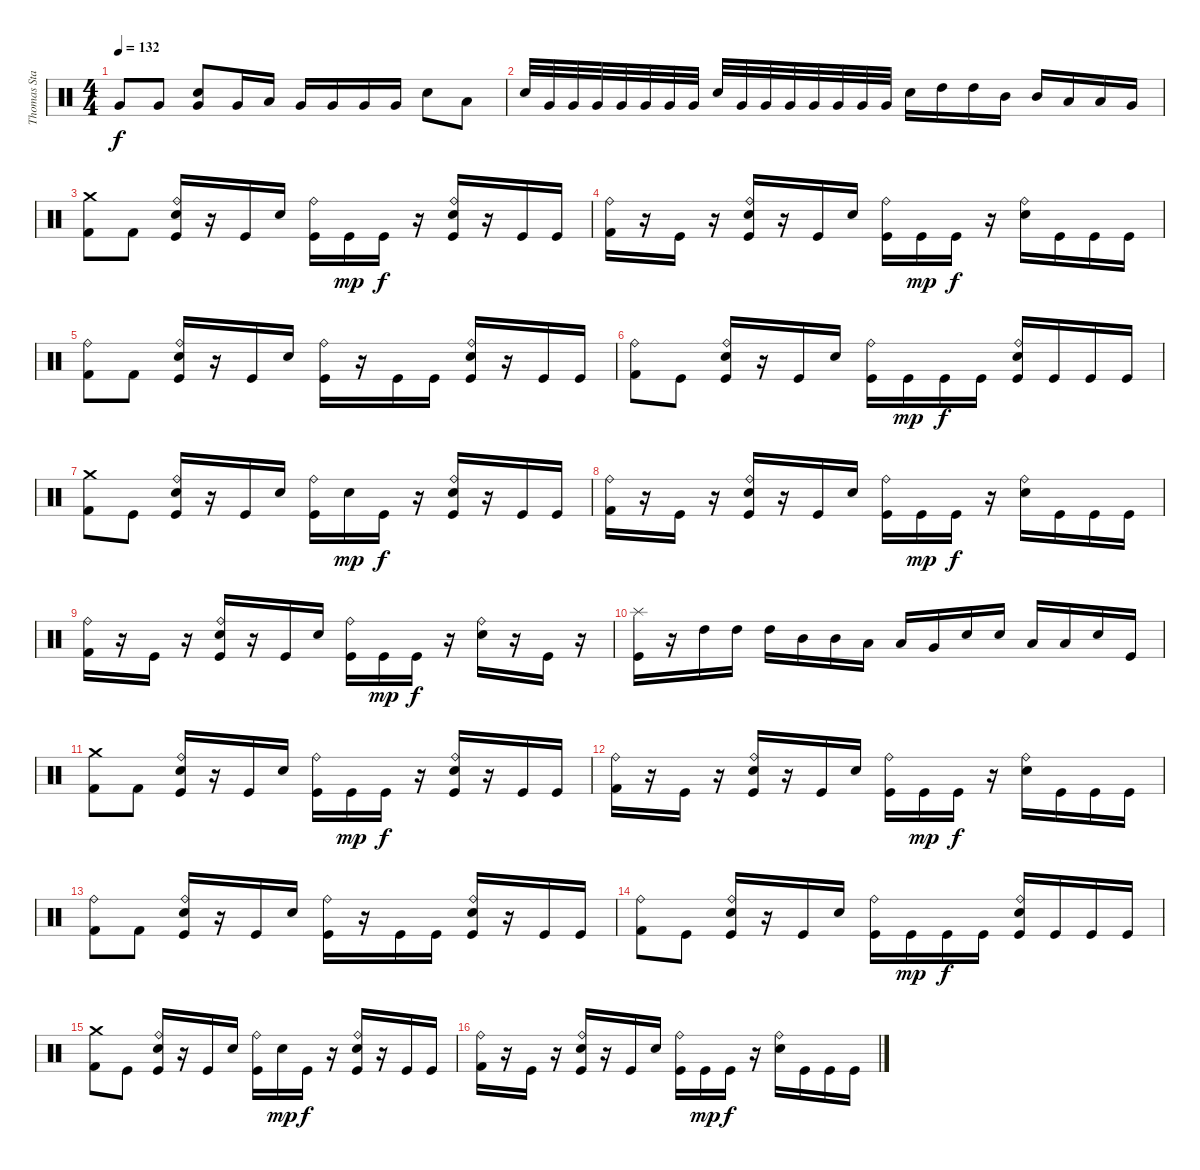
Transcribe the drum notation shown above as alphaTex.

\track ("Thomas Stauch" "Thomas Sta") {instrument percussion}
\staff {score}
\articulation defaults
\ts (4 4)
\tempo 132
\clef neutral
\ks c "Very Low Tom (hit)".8{dy f} "Very Low Tom (hit)".8
("Electric Snare (hit)" "Very Low Tom (hit)").8 "Very Low Tom (hit)".16 "Low Tom (hit)".16 "Very Low Tom (hit)".16 "Very Low Tom (hit)".16 "Very Low Tom (hit)".16 "Very Low Tom (hit)".16 "Electric Snare (hit)".8 "Low Floor Tom (hit)".8 |
"Electric Snare (hit)".32 "Very Low Tom (hit)".32 "Very Low Tom (hit)".32 "Very Low Tom (hit)".32 "Very Low Tom (hit)".32 "Very Low Tom (hit)".32 "Very Low Tom (hit)".32 "Very Low Tom (hit)".32 "Electric Snare (hit)".32 "Very Low Tom (hit)".32 "Very Low Tom (hit)".32 "Very Low Tom (hit)".32 "Very Low Tom (hit)".32 "Very Low Tom (hit)".32 "Very Low Tom (hit)".32 "Very Low Tom (hit)".32 "Electric Snare (hit)".16 "High Tom (hit)".16 "High Tom (hit)".16 "Mid Tom (hit)".16 "Mid Tom (hit)".16 "Low Tom (hit)".16 "Low Tom (hit)".16 "Very Low Tom (hit)".16 |
("Crash medium (hit)" "Kick (hit) 2").8 "Kick (hit) 2".8 ("Ride (bell)" "Electric Snare (hit)" "Kick (hit)").16 r.16 "Kick (hit)".16 "Electric Snare (hit)".16 ("Ride (bell)" "Kick (hit)").16 "Kick (hit)".16{dy mp} "Kick (hit)".16{dy f} r.16 ("Ride (bell)" "Electric Snare (hit)" "Kick (hit)").16 r.16 "Kick (hit)".16 "Kick (hit)".16 |
("Ride (bell)" "Kick (hit) 2").16 r.16 "Kick (hit)".16 r.16 ("Ride (bell)" "Electric Snare (hit)" "Kick (hit)").16 r.16 "Kick (hit)".16 "Electric Snare (hit)".16 ("Ride (bell)" "Kick (hit)").16 "Kick (hit)".16{dy mp} "Kick (hit)".16{dy f} r.16 ("Ride (bell)" "Electric Snare (hit)").16 "Kick (hit)".16 "Kick (hit)".16 "Kick (hit)".16 |
("Ride (bell)" "Kick (hit) 2").8 "Kick (hit) 2".8 ("Ride (bell)" "Electric Snare (hit)" "Kick (hit)").16 r.16 "Kick (hit)".16 "Electric Snare (hit)".16 ("Ride (bell)" "Kick (hit)").16 r.16 "Kick (hit)".16 "Kick (hit)".16 ("Ride (bell)" "Electric Snare (hit)" "Kick (hit)").16 r.16 "Kick (hit)".16 "Kick (hit)".16 |
("Ride (bell)" "Kick (hit) 2").8 "Kick (hit)".8 ("Ride (bell)" "Electric Snare (hit)" "Kick (hit)").16 r.16 "Kick (hit)".16 "Electric Snare (hit)".16 ("Ride (bell)" "Kick (hit)").16 "Kick (hit)".16{dy mp} "Kick (hit)".16{dy f} "Kick (hit)".16 ("Ride (bell)" "Electric Snare (hit)" "Kick (hit)").16 "Kick (hit)".16 "Kick (hit)".16 "Kick (hit)".16 |
("Crash medium (hit)" "Kick (hit) 2").8 "Kick (hit)".8 ("Ride (bell)" "Electric Snare (hit)" "Kick (hit)").16 r.16 "Kick (hit)".16 "Electric Snare (hit)".16 ("Ride (bell)" "Kick (hit)").16 "Electric Snare (hit)".16{dy mp} "Kick (hit)".16{dy f} r.16 ("Ride (bell)" "Electric Snare (hit)" "Kick (hit)").16 r.16 "Kick (hit)".16 "Kick (hit)".16 |
("Ride (bell)" "Kick (hit) 2").16 r.16 "Kick (hit)".16 r.16 ("Ride (bell)" "Electric Snare (hit)" "Kick (hit)").16 r.16 "Kick (hit)".16 "Electric Snare (hit)".16 ("Ride (bell)" "Kick (hit)").16 "Kick (hit)".16{dy mp} "Kick (hit)".16{dy f} r.16 ("Ride (bell)" "Electric Snare (hit)").16 "Kick (hit)".16 "Kick (hit)".16 "Kick (hit)".16 |
("Ride (bell)" "Kick (hit) 2").16 r.16 "Kick (hit)".16 r.16 ("Ride (bell)" "Electric Snare (hit)" "Kick (hit)").16 r.16 "Kick (hit)".16 "Electric Snare (hit)".16 ("Ride (bell)" "Kick (hit)").16 "Kick (hit)".16{dy mp} "Kick (hit)".16{dy f} r.16 ("Ride (bell)" "Electric Snare (hit)").16 r.16 "Kick (hit)".16 r.16 |
("Splash (hit)" "Kick (hit)").16 r.16 "High Tom (hit)".16 "High Tom (hit)".16 "High Tom (hit)".16 "Mid Tom (hit)".16 "Mid Tom (hit)".16 "Low Tom (hit)".16 "Low Tom (hit)".16 "Very Low Tom (hit)".16 "Electric Snare (hit)".16 "Electric Snare (hit)".16 "Low Floor Tom (hit)".16 "Low Floor Tom (hit)".16 "Electric Snare (hit)".16 "Kick (hit)".16 |
("Crash medium (hit)" "Kick (hit) 2").8 "Kick (hit) 2".8 ("Ride (bell)" "Electric Snare (hit)" "Kick (hit)").16 r.16 "Kick (hit)".16 "Electric Snare (hit)".16 ("Ride (bell)" "Kick (hit)").16 "Kick (hit)".16{dy mp} "Kick (hit)".16{dy f} r.16 ("Ride (bell)" "Electric Snare (hit)" "Kick (hit)").16 r.16 "Kick (hit)".16 "Kick (hit)".16 |
("Ride (bell)" "Kick (hit) 2").16 r.16 "Kick (hit)".16 r.16 ("Ride (bell)" "Electric Snare (hit)" "Kick (hit)").16 r.16 "Kick (hit)".16 "Electric Snare (hit)".16 ("Ride (bell)" "Kick (hit)").16 "Kick (hit)".16{dy mp} "Kick (hit)".16{dy f} r.16 ("Ride (bell)" "Electric Snare (hit)").16 "Kick (hit)".16 "Kick (hit)".16 "Kick (hit)".16 |
("Ride (bell)" "Kick (hit) 2").8 "Kick (hit) 2".8 ("Ride (bell)" "Electric Snare (hit)" "Kick (hit)").16 r.16 "Kick (hit)".16 "Electric Snare (hit)".16 ("Ride (bell)" "Kick (hit)").16 r.16 "Kick (hit)".16 "Kick (hit)".16 ("Ride (bell)" "Electric Snare (hit)" "Kick (hit)").16 r.16 "Kick (hit)".16 "Kick (hit)".16 |
("Ride (bell)" "Kick (hit) 2").8 "Kick (hit)".8 ("Ride (bell)" "Electric Snare (hit)" "Kick (hit)").16 r.16 "Kick (hit)".16 "Electric Snare (hit)".16 ("Ride (bell)" "Kick (hit)").16 "Kick (hit)".16{dy mp} "Kick (hit)".16{dy f} "Kick (hit)".16 ("Ride (bell)" "Electric Snare (hit)" "Kick (hit)").16 "Kick (hit)".16 "Kick (hit)".16 "Kick (hit)".16 |
("Crash medium (hit)" "Kick (hit) 2").8 "Kick (hit)".8 ("Ride (bell)" "Electric Snare (hit)" "Kick (hit)").16 r.16 "Kick (hit)".16 "Electric Snare (hit)".16 ("Ride (bell)" "Kick (hit)").16 "Electric Snare (hit)".16{dy mp} "Kick (hit)".16{dy f} r.16 ("Ride (bell)" "Electric Snare (hit)" "Kick (hit)").16 r.16 "Kick (hit)".16 "Kick (hit)".16 |
("Ride (bell)" "Kick (hit) 2").16 r.16 "Kick (hit)".16 r.16 ("Ride (bell)" "Electric Snare (hit)" "Kick (hit)").16 r.16 "Kick (hit)".16 "Electric Snare (hit)".16 ("Ride (bell)" "Kick (hit)").16 "Kick (hit)".16{dy mp} "Kick (hit)".16{dy f} r.16 ("Ride (bell)" "Electric Snare (hit)").16 "Kick (hit)".16 "Kick (hit)".16 "Kick (hit)".16
